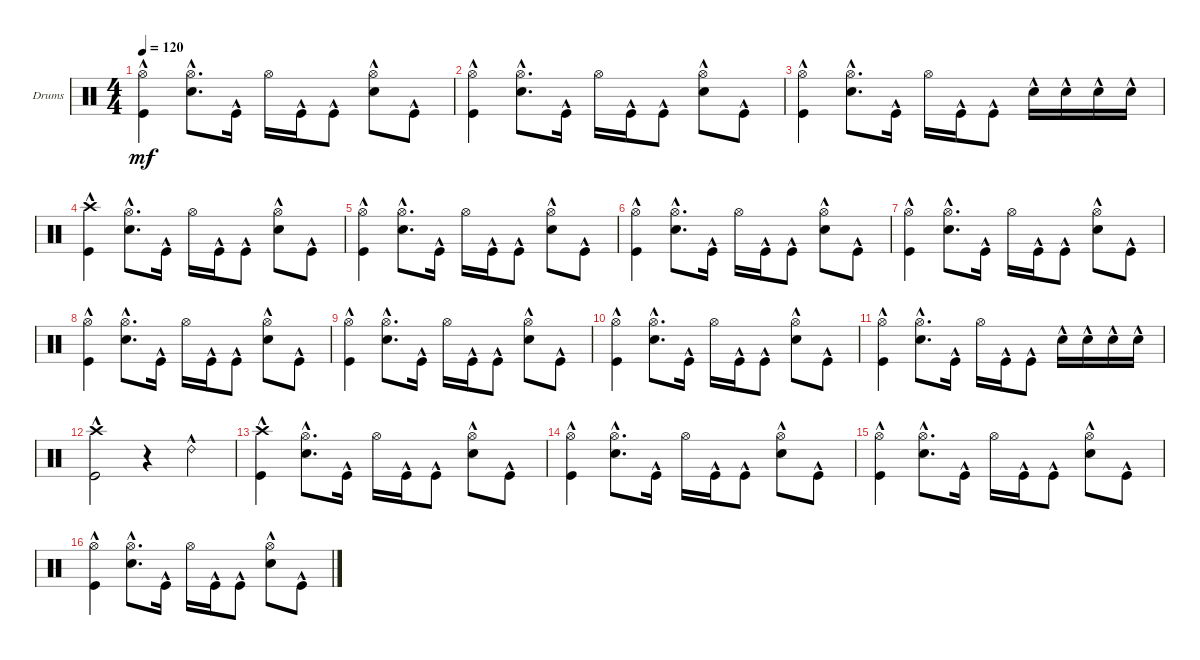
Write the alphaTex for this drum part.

\defaultSystemsLayout 4
\bracketExtendMode groupsimilarinstruments
\firstSystemTrackNameOrientation horizontal
\otherSystemsTrackNameOrientation horizontal
\track ("Drumkit" "Drums") {instrument percussion}
\staff {score}
\articulation defaults
\ts (4 4)
\tempo 120
\clef neutral
\ks c
("Kick (hit)"{hac} "Hi-Hat (open)").4{dy mf} ("Snare (hit) 2"{hac} "Hi-Hat (open)").8{d} "Kick (hit)"{hac}.16 "Hi-Hat (open)".16 "Kick (hit)"{hac}.16 "Kick (hit)"{hac}.8 ("Snare (hit) 2"{hac} "Hi-Hat (open)").8 "Kick (hit)"{hac}.8 |
("Kick (hit)"{hac} "Hi-Hat (open)").4 ("Snare (hit) 2"{hac} "Hi-Hat (open)").8{d} "Kick (hit)"{hac}.16 "Hi-Hat (open)".16 "Kick (hit)"{hac}.16 "Kick (hit)"{hac}.8 ("Snare (hit) 2"{hac} "Hi-Hat (open)").8 "Kick (hit)"{hac}.8 |
("Kick (hit)"{hac} "Hi-Hat (open)").4 ("Snare (hit) 2"{hac} "Hi-Hat (open)").8{d} "Kick (hit)"{hac}.16 "Hi-Hat (open)".16 "Kick (hit)"{hac}.16 "Kick (hit)"{hac}.8 "Snare (hit) 2"{hac}.16 "Snare (hit) 2"{hac}.16 "Snare (hit) 2"{hac}.16 "Snare (hit) 2"{hac}.16 |
("Kick (hit)"{hac} "Crash high (hit)"{hac}).4 ("Snare (hit) 2"{hac} "Hi-Hat (open)").8{d} "Kick (hit)"{hac}.16 "Hi-Hat (open)".16 "Kick (hit)"{hac}.16 "Kick (hit)"{hac}.8 ("Snare (hit) 2"{hac} "Hi-Hat (open)").8 "Kick (hit)"{hac}.8 |
("Kick (hit)"{hac} "Hi-Hat (open)").4 ("Snare (hit) 2"{hac} "Hi-Hat (open)").8{d} "Kick (hit)"{hac}.16 "Hi-Hat (open)".16 "Kick (hit)"{hac}.16 "Kick (hit)"{hac}.8 ("Snare (hit) 2"{hac} "Hi-Hat (open)").8 "Kick (hit)"{hac}.8 |
("Kick (hit)"{hac} "Hi-Hat (open)").4 ("Snare (hit) 2"{hac} "Hi-Hat (open)").8{d} "Kick (hit)"{hac}.16 "Hi-Hat (open)".16 "Kick (hit)"{hac}.16 "Kick (hit)"{hac}.8 ("Snare (hit) 2"{hac} "Hi-Hat (open)").8 "Kick (hit)"{hac}.8 |
("Kick (hit)"{hac} "Hi-Hat (open)").4 ("Snare (hit) 2"{hac} "Hi-Hat (open)").8{d} "Kick (hit)"{hac}.16 "Hi-Hat (open)".16 "Kick (hit)"{hac}.16 "Kick (hit)"{hac}.8 ("Snare (hit) 2"{hac} "Hi-Hat (open)").8 "Kick (hit)"{hac}.8 |
("Kick (hit)"{hac} "Hi-Hat (open)").4 ("Snare (hit) 2"{hac} "Hi-Hat (open)").8{d} "Kick (hit)"{hac}.16 "Hi-Hat (open)".16 "Kick (hit)"{hac}.16 "Kick (hit)"{hac}.8 ("Snare (hit) 2"{hac} "Hi-Hat (open)").8 "Kick (hit)"{hac}.8 |
("Kick (hit)"{hac} "Hi-Hat (open)").4 ("Snare (hit) 2"{hac} "Hi-Hat (open)").8{d} "Kick (hit)"{hac}.16 "Hi-Hat (open)".16 "Kick (hit)"{hac}.16 "Kick (hit)"{hac}.8 ("Snare (hit) 2"{hac} "Hi-Hat (open)").8 "Kick (hit)"{hac}.8 |
("Kick (hit)"{hac} "Hi-Hat (open)").4 ("Snare (hit) 2"{hac} "Hi-Hat (open)").8{d} "Kick (hit)"{hac}.16 "Hi-Hat (open)".16 "Kick (hit)"{hac}.16 "Kick (hit)"{hac}.8 ("Snare (hit) 2"{hac} "Hi-Hat (open)").8 "Kick (hit)"{hac}.8 |
("Kick (hit)"{hac} "Hi-Hat (open)").4 ("Snare (hit) 2"{hac} "Hi-Hat (open)").8{d} "Kick (hit)"{hac}.16 "Hi-Hat (open)".16 "Kick (hit)"{hac}.16 "Kick (hit)"{hac}.8 "Snare (hit) 2"{hac}.16 "Snare (hit) 2"{hac}.16 "Snare (hit) 2"{hac}.16 "Snare (hit) 2"{hac}.16 |
("Kick (hit)"{hac} "Crash high (hit)"{hac}).2 r.4 "Ride (bell) 2"{hac}.4 |
("Kick (hit)"{hac} "Crash high (hit)"{hac}).4 ("Snare (hit) 2"{hac} "Hi-Hat (open)").8{d} "Kick (hit)"{hac}.16 "Hi-Hat (open)".16 "Kick (hit)"{hac}.16 "Kick (hit)"{hac}.8 ("Snare (hit) 2"{hac} "Hi-Hat (open)").8 "Kick (hit)"{hac}.8 |
("Kick (hit)"{hac} "Hi-Hat (open)").4 ("Snare (hit) 2"{hac} "Hi-Hat (open)").8{d} "Kick (hit)"{hac}.16 "Hi-Hat (open)".16 "Kick (hit)"{hac}.16 "Kick (hit)"{hac}.8 ("Snare (hit) 2"{hac} "Hi-Hat (open)").8 "Kick (hit)"{hac}.8 |
("Kick (hit)"{hac} "Hi-Hat (open)").4 ("Snare (hit) 2"{hac} "Hi-Hat (open)").8{d} "Kick (hit)"{hac}.16 "Hi-Hat (open)".16 "Kick (hit)"{hac}.16 "Kick (hit)"{hac}.8 ("Snare (hit) 2"{hac} "Hi-Hat (open)").8 "Kick (hit)"{hac}.8 |
("Kick (hit)"{hac} "Hi-Hat (open)").4 ("Snare (hit) 2"{hac} "Hi-Hat (open)").8{d} "Kick (hit)"{hac}.16 "Hi-Hat (open)".16 "Kick (hit)"{hac}.16 "Kick (hit)"{hac}.8 ("Snare (hit) 2"{hac} "Hi-Hat (open)").8 "Kick (hit)"{hac}.8
